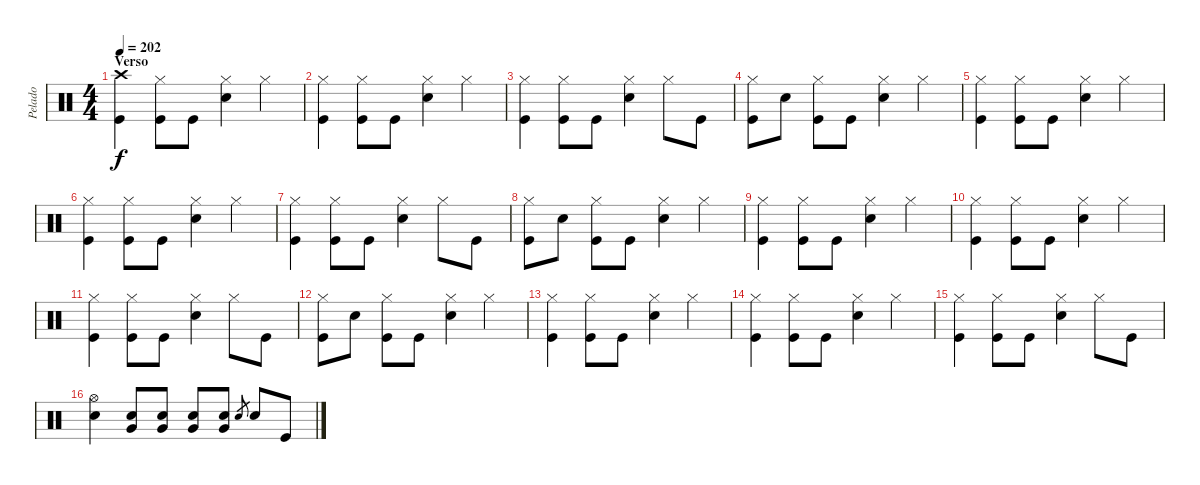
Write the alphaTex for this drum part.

\track ("Pelado" "Pelado") {instrument percussion}
\staff {score}
\articulation defaults
\ts (4 4)
\section ("" "Verso")
\tempo 202
\clef neutral
\ks c
("Crash high (hit)" "Kick (hit)").4{dy f} ("Hi-Hat (closed)" "Kick (hit)").8 "Kick (hit)".8 ("Hi-Hat (closed)" "Electric Snare (hit)").4 "Hi-Hat (closed)".4 |
("Hi-Hat (closed)" "Kick (hit)").4 ("Hi-Hat (closed)" "Kick (hit)").8 "Kick (hit)".8 ("Hi-Hat (closed)" "Electric Snare (hit)").4 "Hi-Hat (closed)".4 |
("Hi-Hat (closed)" "Kick (hit)").4 ("Hi-Hat (closed)" "Kick (hit)").8 "Kick (hit)".8 ("Hi-Hat (closed)" "Electric Snare (hit)").4 "Hi-Hat (closed)".8 "Kick (hit)".8 |
("Hi-Hat (closed)" "Kick (hit)").8 "Electric Snare (hit)".8 ("Hi-Hat (closed)" "Kick (hit)").8 "Kick (hit)".8 ("Hi-Hat (closed)" "Electric Snare (hit)").4 "Hi-Hat (closed)".4 |
("Hi-Hat (closed)" "Kick (hit)").4 ("Hi-Hat (closed)" "Kick (hit)").8 "Kick (hit)".8 ("Hi-Hat (closed)" "Electric Snare (hit)").4 "Hi-Hat (closed)".4 |
("Hi-Hat (closed)" "Kick (hit)").4 ("Hi-Hat (closed)" "Kick (hit)").8 "Kick (hit)".8 ("Hi-Hat (closed)" "Electric Snare (hit)").4 "Hi-Hat (closed)".4 |
("Hi-Hat (closed)" "Kick (hit)").4 ("Hi-Hat (closed)" "Kick (hit)").8 "Kick (hit)".8 ("Hi-Hat (closed)" "Electric Snare (hit)").4 "Hi-Hat (closed)".8 "Kick (hit)".8 |
("Hi-Hat (closed)" "Kick (hit)").8 "Electric Snare (hit)".8 ("Hi-Hat (closed)" "Kick (hit)").8 "Kick (hit)".8 ("Hi-Hat (closed)" "Electric Snare (hit)").4 "Hi-Hat (closed)".4 |
("Hi-Hat (closed)" "Kick (hit)").4 ("Hi-Hat (closed)" "Kick (hit)").8 "Kick (hit)".8 ("Hi-Hat (closed)" "Electric Snare (hit)").4 "Hi-Hat (closed)".4 |
("Hi-Hat (closed)" "Kick (hit)").4 ("Hi-Hat (closed)" "Kick (hit)").8 "Kick (hit)".8 ("Hi-Hat (closed)" "Electric Snare (hit)").4 "Hi-Hat (closed)".4 |
("Hi-Hat (closed)" "Kick (hit)").4 ("Hi-Hat (closed)" "Kick (hit)").8 "Kick (hit)".8 ("Hi-Hat (closed)" "Electric Snare (hit)").4 "Hi-Hat (closed)".8 "Kick (hit)".8 |
("Hi-Hat (closed)" "Kick (hit)").8 "Electric Snare (hit)".8 ("Hi-Hat (closed)" "Kick (hit)").8 "Kick (hit)".8 ("Hi-Hat (closed)" "Electric Snare (hit)").4 "Hi-Hat (closed)".4 |
("Hi-Hat (closed)" "Kick (hit)").4 ("Hi-Hat (closed)" "Kick (hit)").8 "Kick (hit)".8 ("Hi-Hat (closed)" "Electric Snare (hit)").4 "Hi-Hat (closed)".4 |
("Hi-Hat (closed)" "Kick (hit)").4 ("Hi-Hat (closed)" "Kick (hit)").8 "Kick (hit)".8 ("Hi-Hat (closed)" "Electric Snare (hit)").4 "Hi-Hat (closed)".4 |
("Hi-Hat (closed)" "Kick (hit)").4 ("Hi-Hat (closed)" "Kick (hit)").8 "Kick (hit)".8 ("Hi-Hat (closed)" "Electric Snare (hit)").4 "Hi-Hat (closed)".8 "Kick (hit)".8 |
("Hi-Hat (open)" "Electric Snare (hit)").4 ("Very Low Tom (hit)" "Electric Snare (hit)").8 ("Very Low Tom (hit)" "Electric Snare (hit)").8 ("Very Low Tom (hit)" "Electric Snare (hit)").8 ("Very Low Tom (hit)" "Electric Snare (hit)").8 "Electric Snare (hit)".8{gr} "Electric Snare (hit)".8 "Kick (hit)".8
